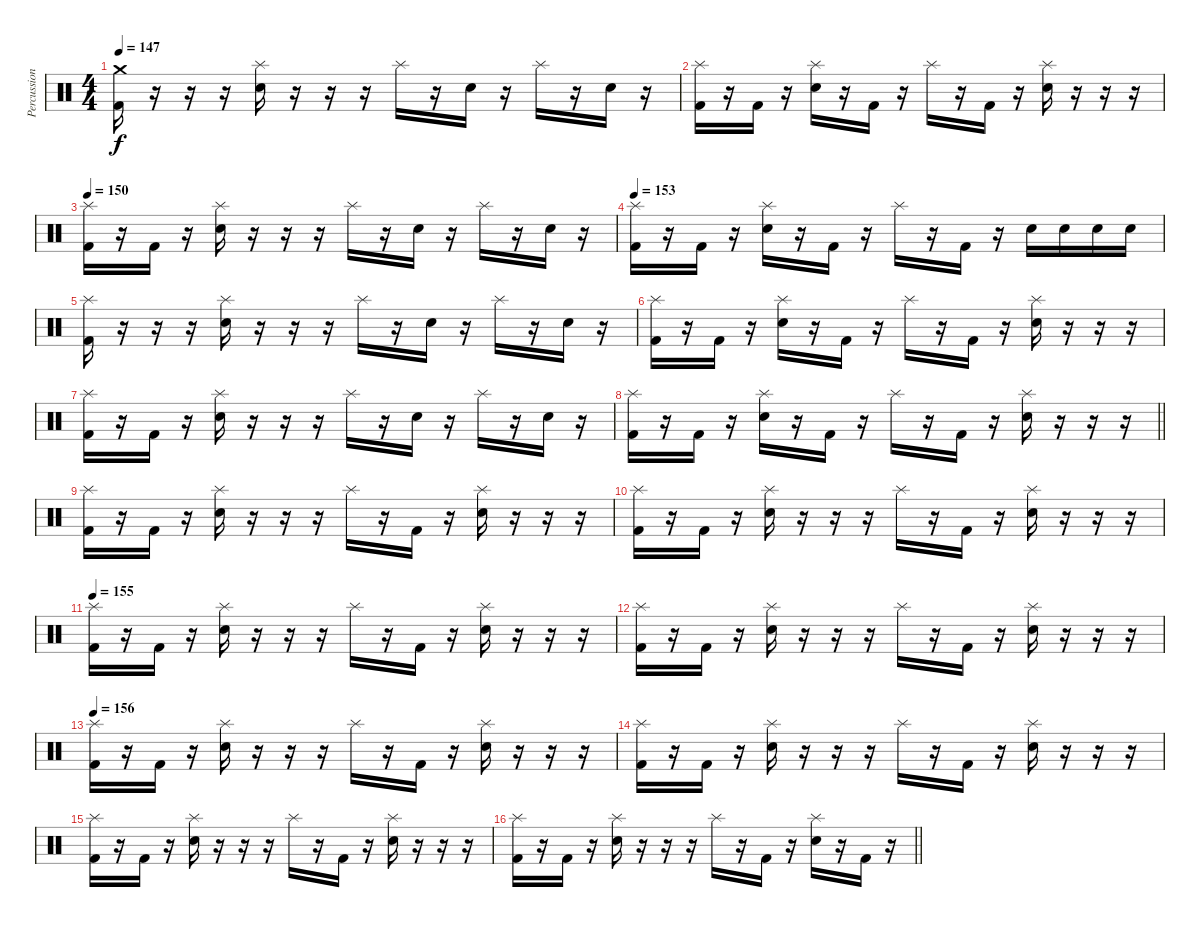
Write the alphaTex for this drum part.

\track ("Percussion" "Percussion") {instrument percussion}
\staff {score}
\articulation defaults
\ts (4 4)
\section ("" "")
\tempo 147
\clef neutral
\ks c
("Crash medium (hit)" "Kick (hit) 2").16{dy f} r.16 r.16 r.16 ("Splash (hit)" "Electric Snare (hit)").16 r.16 r.16 r.16 "Splash (hit)".16 r.16 "Electric Snare (hit)".16 r.16 "Splash (hit)".16 r.16 "Electric Snare (hit)".16 r.16 |
("Splash (hit)" "Kick (hit) 2").16 r.16 "Kick (hit) 2".16 r.16 ("Splash (hit)" "Electric Snare (hit)").16 r.16 "Kick (hit) 2".16 r.16 "Splash (hit)".16 r.16 "Kick (hit) 2".16 r.16 ("Splash (hit)" "Electric Snare (hit)").16 r.16 r.16 r.16 |
\tempo 150
("Splash (hit)" "Kick (hit) 2").16 r.16 "Kick (hit) 2".16 r.16 ("Splash (hit)" "Electric Snare (hit)").16 r.16 r.16 r.16 "Splash (hit)".16 r.16 "Electric Snare (hit)".16 r.16 "Splash (hit)".16 r.16 "Electric Snare (hit)".16 r.16 |
\tempo 153
("Splash (hit)" "Kick (hit) 2").16 r.16 "Kick (hit) 2".16 r.16 ("Splash (hit)" "Electric Snare (hit)").16 r.16 "Kick (hit) 2".16 r.16 "Splash (hit)".16 r.16 "Kick (hit) 2".16 r.16 "Electric Snare (hit)".16 "Electric Snare (hit)".16 "Electric Snare (hit)".16 "Electric Snare (hit)".16 |
("Splash (hit)" "Kick (hit) 2").16 r.16 r.16 r.16 ("Splash (hit)" "Electric Snare (hit)").16 r.16 r.16 r.16 "Splash (hit)".16 r.16 "Electric Snare (hit)".16 r.16 "Splash (hit)".16 r.16 "Electric Snare (hit)".16 r.16 |
("Splash (hit)" "Kick (hit) 2").16 r.16 "Kick (hit) 2".16 r.16 ("Splash (hit)" "Electric Snare (hit)").16 r.16 "Kick (hit) 2".16 r.16 "Splash (hit)".16 r.16 "Kick (hit) 2".16 r.16 ("Splash (hit)" "Electric Snare (hit)").16 r.16 r.16 r.16 |
("Splash (hit)" "Kick (hit) 2").16 r.16 "Kick (hit) 2".16 r.16 ("Splash (hit)" "Electric Snare (hit)").16 r.16 r.16 r.16 "Splash (hit)".16 r.16 "Electric Snare (hit)".16 r.16 "Splash (hit)".16 r.16 "Electric Snare (hit)".16 r.16 |
\barLineRight lightlight
("Splash (hit)" "Kick (hit) 2").16 r.16 "Kick (hit) 2".16 r.16 ("Splash (hit)" "Electric Snare (hit)").16 r.16 "Kick (hit) 2".16 r.16 "Splash (hit)".16 r.16 "Kick (hit) 2".16 r.16 ("Splash (hit)" "Electric Snare (hit)").16 r.16 r.16 r.16 |
\section ("" "")
("Splash (hit)" "Kick (hit) 2").16 r.16 "Kick (hit) 2".16 r.16 ("Splash (hit)" "Electric Snare (hit)").16 r.16 r.16 r.16 "Splash (hit)".16 r.16 "Kick (hit) 2".16 r.16 ("Splash (hit)" "Electric Snare (hit)").16 r.16 r.16 r.16 |
("Splash (hit)" "Kick (hit) 2").16 r.16 "Kick (hit) 2".16 r.16 ("Splash (hit)" "Electric Snare (hit)").16 r.16 r.16 r.16 "Splash (hit)".16 r.16 "Kick (hit) 2".16 r.16 ("Splash (hit)" "Electric Snare (hit)").16 r.16 r.16 r.16 |
\tempo 155
("Splash (hit)" "Kick (hit) 2").16 r.16 "Kick (hit) 2".16 r.16 ("Splash (hit)" "Electric Snare (hit)").16 r.16 r.16 r.16 "Splash (hit)".16 r.16 "Kick (hit) 2".16 r.16 ("Splash (hit)" "Electric Snare (hit)").16 r.16 r.16 r.16 |
("Splash (hit)" "Kick (hit) 2").16 r.16 "Kick (hit) 2".16 r.16 ("Splash (hit)" "Electric Snare (hit)").16 r.16 r.16 r.16 "Splash (hit)".16 r.16 "Kick (hit) 2".16 r.16 ("Splash (hit)" "Electric Snare (hit)").16 r.16 r.16 r.16 |
\tempo 156
("Splash (hit)" "Kick (hit) 2").16 r.16 "Kick (hit) 2".16 r.16 ("Splash (hit)" "Electric Snare (hit)").16 r.16 r.16 r.16 "Splash (hit)".16 r.16 "Kick (hit) 2".16 r.16 ("Splash (hit)" "Electric Snare (hit)").16 r.16 r.16 r.16 |
("Splash (hit)" "Kick (hit) 2").16 r.16 "Kick (hit) 2".16 r.16 ("Splash (hit)" "Electric Snare (hit)").16 r.16 r.16 r.16 "Splash (hit)".16 r.16 "Kick (hit) 2".16 r.16 ("Splash (hit)" "Electric Snare (hit)").16 r.16 r.16 r.16 |
("Splash (hit)" "Kick (hit) 2").16 r.16 "Kick (hit) 2".16 r.16 ("Splash (hit)" "Electric Snare (hit)").16 r.16 r.16 r.16 "Splash (hit)".16 r.16 "Kick (hit) 2".16 r.16 ("Splash (hit)" "Electric Snare (hit)").16 r.16 r.16 r.16 |
\barLineRight lightlight
("Splash (hit)" "Kick (hit) 2").16 r.16 "Kick (hit) 2".16 r.16 ("Splash (hit)" "Electric Snare (hit)").16 r.16 r.16 r.16 "Splash (hit)".16 r.16 "Kick (hit) 2".16 r.16 ("Splash (hit)" "Electric Snare (hit)").16 r.16 "Kick (hit) 2".16 r.16
